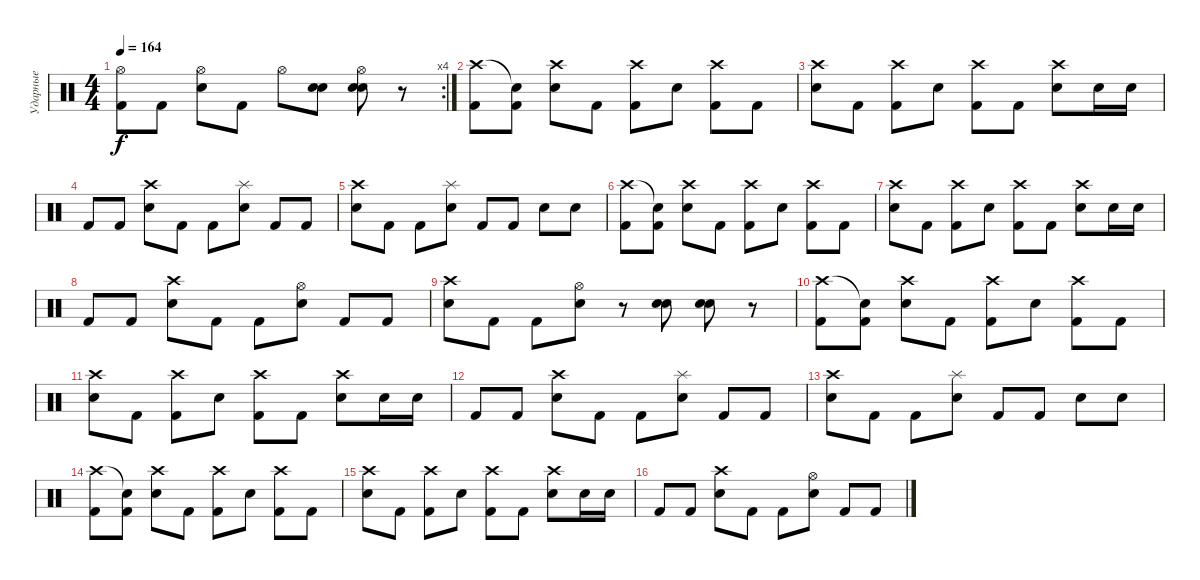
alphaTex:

\track ("Ударные" "Ударные") {instrument percussion}
\staff {score}
\articulation defaults
\rc 4
\ts (4 4)
\tempo 164
\clef neutral
\ks c
("Hi-Hat (open)" "Kick (hit) 2").8{dy f} "Kick (hit) 2".8 ("Hi-Hat (open)" "Snare (hit) 2").8 "Kick (hit) 2".8 "Hi-Hat (open)".8 ("Snare (hit) 2" "Snare (hit) 2").8 ("Hi-Hat (open)" "Snare (hit) 2" "Snare (hit) 2").8 r.8 |
("Crash high (hit)" "Kick (hit) 2").8 ("Snare (hit)"{t} "Kick (hit) 2").8 ("Crash high (hit)" "Snare (hit) 2").8 "Kick (hit) 2".8 ("Crash high (hit)" "Kick (hit) 2").8 "Snare (hit) 2".8 ("Crash high (hit)" "Kick (hit) 2").8 "Kick (hit) 2".8 |
("Crash high (hit)" "Snare (hit) 2").8 "Kick (hit) 2".8 ("Crash high (hit)" "Kick (hit) 2").8 "Snare (hit) 2".8 ("Crash high (hit)" "Kick (hit) 2").8 "Kick (hit) 2".8 ("Crash high (hit)" "Snare (hit) 2").8 "Snare (hit) 2".16 "Snare (hit) 2".16 |
"Kick (hit) 2".8 "Kick (hit) 2".8 ("Crash high (hit)" "Snare (hit) 2").8 "Kick (hit) 2".8 "Kick (hit) 2".8 ("Splash (hit)" "Snare (hit) 2").8 "Kick (hit) 2".8 "Kick (hit) 2".8 |
("Crash high (hit)" "Snare (hit) 2").8 "Kick (hit) 2".8 "Kick (hit) 2".8 ("Splash (hit)" "Snare (hit) 2").8 "Kick (hit) 2".8 "Kick (hit) 2".8 "Snare (hit) 2".8 "Snare (hit) 2".8 |
("Crash high (hit)" "Kick (hit) 2").8 ("Snare (hit)"{t} "Kick (hit) 2").8 ("Crash high (hit)" "Snare (hit) 2").8 "Kick (hit) 2".8 ("Crash high (hit)" "Kick (hit) 2").8 "Snare (hit) 2".8 ("Crash high (hit)" "Kick (hit) 2").8 "Kick (hit) 2".8 |
("Crash high (hit)" "Snare (hit) 2").8 "Kick (hit) 2".8 ("Crash high (hit)" "Kick (hit) 2").8 "Snare (hit) 2".8 ("Crash high (hit)" "Kick (hit) 2").8 "Kick (hit) 2".8 ("Crash high (hit)" "Snare (hit) 2").8 "Snare (hit) 2".16 "Snare (hit) 2".16 |
"Kick (hit) 2".8 "Kick (hit) 2".8 ("Crash high (hit)" "Snare (hit) 2").8 "Kick (hit) 2".8 "Kick (hit) 2".8 ("Hi-Hat (open)" "Snare (hit) 2").8 "Kick (hit) 2".8 "Kick (hit) 2".8 |
("Crash high (hit)" "Snare (hit) 2").8 "Kick (hit) 2".8 "Kick (hit) 2".8 ("Hi-Hat (open)" "Snare (hit) 2").8 r.8 ("Snare (hit) 2" "Snare (hit) 2").8 ("Snare (hit) 2" "Snare (hit) 2").8 r.8 |
("Crash high (hit)" "Kick (hit) 2").8 ("Snare (hit)"{t} "Kick (hit) 2").8 ("Crash high (hit)" "Snare (hit) 2").8 "Kick (hit) 2".8 ("Crash high (hit)" "Kick (hit) 2").8 "Snare (hit) 2".8 ("Crash high (hit)" "Kick (hit) 2").8 "Kick (hit) 2".8 |
("Crash high (hit)" "Snare (hit) 2").8 "Kick (hit) 2".8 ("Crash high (hit)" "Kick (hit) 2").8 "Snare (hit) 2".8 ("Crash high (hit)" "Kick (hit) 2").8 "Kick (hit) 2".8 ("Crash high (hit)" "Snare (hit) 2").8 "Snare (hit) 2".16 "Snare (hit) 2".16 |
"Kick (hit) 2".8 "Kick (hit) 2".8 ("Crash high (hit)" "Snare (hit) 2").8 "Kick (hit) 2".8 "Kick (hit) 2".8 ("Splash (hit)" "Snare (hit) 2").8 "Kick (hit) 2".8 "Kick (hit) 2".8 |
("Crash high (hit)" "Snare (hit) 2").8 "Kick (hit) 2".8 "Kick (hit) 2".8 ("Splash (hit)" "Snare (hit) 2").8 "Kick (hit) 2".8 "Kick (hit) 2".8 "Snare (hit) 2".8 "Snare (hit) 2".8 |
("Crash high (hit)" "Kick (hit) 2").8 ("Snare (hit)"{t} "Kick (hit) 2").8 ("Crash high (hit)" "Snare (hit) 2").8 "Kick (hit) 2".8 ("Crash high (hit)" "Kick (hit) 2").8 "Snare (hit) 2".8 ("Crash high (hit)" "Kick (hit) 2").8 "Kick (hit) 2".8 |
("Crash high (hit)" "Snare (hit) 2").8 "Kick (hit) 2".8 ("Crash high (hit)" "Kick (hit) 2").8 "Snare (hit) 2".8 ("Crash high (hit)" "Kick (hit) 2").8 "Kick (hit) 2".8 ("Crash high (hit)" "Snare (hit) 2").8 "Snare (hit) 2".16 "Snare (hit) 2".16 |
"Kick (hit) 2".8 "Kick (hit) 2".8 ("Crash high (hit)" "Snare (hit) 2").8 "Kick (hit) 2".8 "Kick (hit) 2".8 ("Hi-Hat (open)" "Snare (hit) 2").8 "Kick (hit) 2".8 "Kick (hit) 2".8
